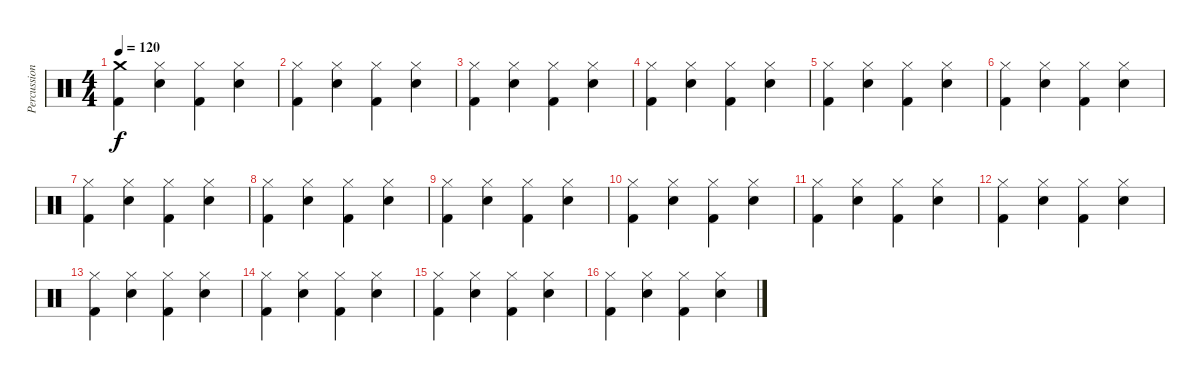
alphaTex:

\track ("Percussion" "Percussion") {instrument percussion}
\staff {score}
\articulation defaults
\ts (4 4)
\tempo 120
\clef neutral
\ks c
("Kick (hit) 2" "Crash medium (hit)").4{dy f} ("Electric Snare (hit)" "Hi-Hat (closed)").4 ("Hi-Hat (closed)" "Kick (hit) 2").4 ("Electric Snare (hit)" "Hi-Hat (closed)").4 |
("Hi-Hat (closed)" "Kick (hit) 2").4 ("Electric Snare (hit)" "Hi-Hat (closed)").4 ("Hi-Hat (closed)" "Kick (hit) 2").4 ("Electric Snare (hit)" "Hi-Hat (closed)").4 |
("Hi-Hat (closed)" "Kick (hit) 2").4 ("Electric Snare (hit)" "Hi-Hat (closed)").4 ("Hi-Hat (closed)" "Kick (hit) 2").4 ("Electric Snare (hit)" "Hi-Hat (closed)").4 |
("Hi-Hat (closed)" "Kick (hit) 2").4 ("Electric Snare (hit)" "Hi-Hat (closed)").4 ("Hi-Hat (closed)" "Kick (hit) 2").4 ("Electric Snare (hit)" "Hi-Hat (closed)").4 |
("Hi-Hat (closed)" "Kick (hit) 2").4 ("Electric Snare (hit)" "Hi-Hat (closed)").4 ("Hi-Hat (closed)" "Kick (hit) 2").4 ("Electric Snare (hit)" "Hi-Hat (closed)").4 |
("Hi-Hat (closed)" "Kick (hit) 2").4 ("Electric Snare (hit)" "Hi-Hat (closed)").4 ("Hi-Hat (closed)" "Kick (hit) 2").4 ("Electric Snare (hit)" "Hi-Hat (closed)").4 |
("Hi-Hat (closed)" "Kick (hit) 2").4 ("Electric Snare (hit)" "Hi-Hat (closed)").4 ("Hi-Hat (closed)" "Kick (hit) 2").4 ("Electric Snare (hit)" "Hi-Hat (closed)").4 |
("Hi-Hat (closed)" "Kick (hit) 2").4 ("Electric Snare (hit)" "Hi-Hat (closed)").4 ("Hi-Hat (closed)" "Kick (hit) 2").4 ("Electric Snare (hit)" "Hi-Hat (closed)").4 |
("Hi-Hat (closed)" "Kick (hit) 2").4 ("Electric Snare (hit)" "Hi-Hat (closed)").4 ("Hi-Hat (closed)" "Kick (hit) 2").4 ("Electric Snare (hit)" "Hi-Hat (closed)").4 |
("Hi-Hat (closed)" "Kick (hit) 2").4 ("Electric Snare (hit)" "Hi-Hat (closed)").4 ("Hi-Hat (closed)" "Kick (hit) 2").4 ("Electric Snare (hit)" "Hi-Hat (closed)").4 |
("Hi-Hat (closed)" "Kick (hit) 2").4 ("Electric Snare (hit)" "Hi-Hat (closed)").4 ("Hi-Hat (closed)" "Kick (hit) 2").4 ("Electric Snare (hit)" "Hi-Hat (closed)").4 |
("Hi-Hat (closed)" "Kick (hit) 2").4 ("Electric Snare (hit)" "Hi-Hat (closed)").4 ("Hi-Hat (closed)" "Kick (hit) 2").4 ("Electric Snare (hit)" "Hi-Hat (closed)").4 |
("Hi-Hat (closed)" "Kick (hit) 2").4 ("Electric Snare (hit)" "Hi-Hat (closed)").4 ("Hi-Hat (closed)" "Kick (hit) 2").4 ("Electric Snare (hit)" "Hi-Hat (closed)").4 |
("Hi-Hat (closed)" "Kick (hit) 2").4 ("Electric Snare (hit)" "Hi-Hat (closed)").4 ("Hi-Hat (closed)" "Kick (hit) 2").4 ("Electric Snare (hit)" "Hi-Hat (closed)").4 |
("Hi-Hat (closed)" "Kick (hit) 2").4 ("Electric Snare (hit)" "Hi-Hat (closed)").4 ("Hi-Hat (closed)" "Kick (hit) 2").4 ("Electric Snare (hit)" "Hi-Hat (closed)").4 |
("Hi-Hat (closed)" "Kick (hit) 2").4 ("Electric Snare (hit)" "Hi-Hat (closed)").4 ("Hi-Hat (closed)" "Kick (hit) 2").4 ("Electric Snare (hit)" "Hi-Hat (closed)").4
